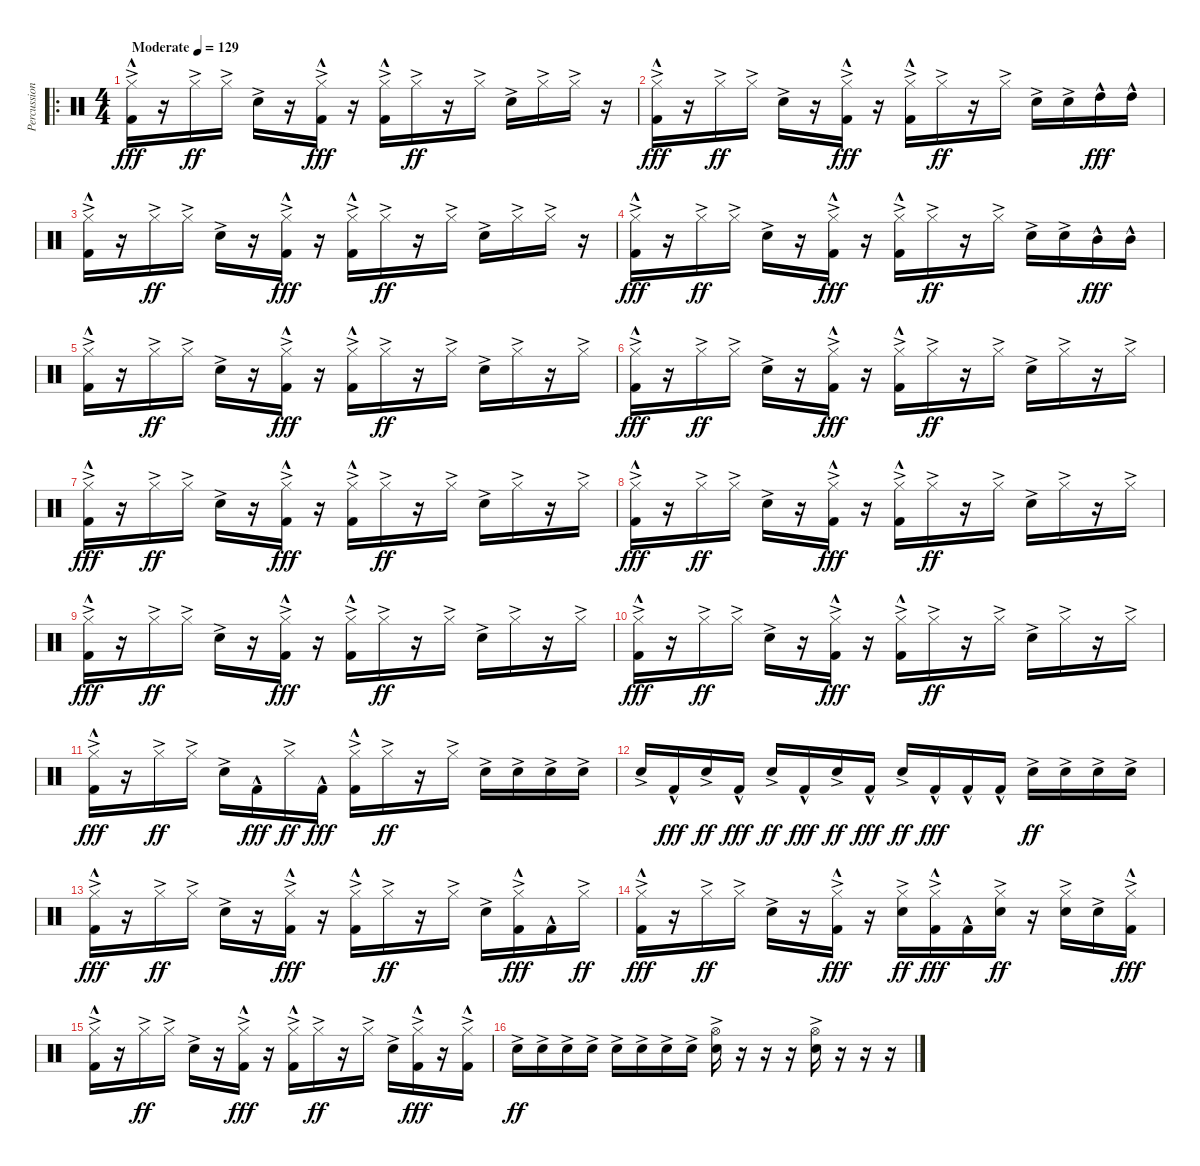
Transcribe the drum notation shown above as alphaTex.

\track ("Percussion" "Percussion") {instrument percussion}
\staff {score}
\articulation defaults
\ro
\ts (4 4)
\tempo (129 "Moderate")
\clef neutral
\ks c
("Hi-Hat (closed)"{ac} "Kick (hit) 2"{hac}).16{dy fff} r.16 "Hi-Hat (closed)"{ac}.16{dy ff} "Hi-Hat (closed)"{ac}.16 "Snare (hit) 2"{ac}.16 r.16 ("Hi-Hat (closed)"{ac} "Kick (hit) 2"{hac}).16{dy fff} r.16 ("Hi-Hat (closed)"{ac} "Kick (hit) 2"{hac}).16 "Hi-Hat (closed)"{ac}.16{dy ff} r.16 "Hi-Hat (closed)"{ac}.16 "Snare (hit) 2"{ac}.16 "Hi-Hat (closed)"{ac}.16 "Hi-Hat (closed)"{ac}.16 r.16 |
("Hi-Hat (closed)"{ac} "Kick (hit) 2"{hac}).16{dy fff} r.16 "Hi-Hat (closed)"{ac}.16{dy ff} "Hi-Hat (closed)"{ac}.16 "Snare (hit) 2"{ac}.16 r.16 ("Hi-Hat (closed)"{ac} "Kick (hit) 2"{hac}).16{dy fff} r.16 ("Hi-Hat (closed)"{ac} "Kick (hit) 2"{hac}).16 "Hi-Hat (closed)"{ac}.16{dy ff} r.16 "Hi-Hat (closed)"{ac}.16 "Snare (hit) 2"{ac}.16 "Snare (hit) 2"{ac}.16 "High Tom (hit)"{hac}.16{dy fff} "High Tom (hit)"{hac}.16 |
("Hi-Hat (closed)"{ac} "Kick (hit) 2"{hac}).16 r.16 "Hi-Hat (closed)"{ac}.16{dy ff} "Hi-Hat (closed)"{ac}.16 "Snare (hit) 2"{ac}.16 r.16 ("Hi-Hat (closed)"{ac} "Kick (hit) 2"{hac}).16{dy fff} r.16 ("Hi-Hat (closed)"{ac} "Kick (hit) 2"{hac}).16 "Hi-Hat (closed)"{ac}.16{dy ff} r.16 "Hi-Hat (closed)"{ac}.16 "Snare (hit) 2"{ac}.16 "Hi-Hat (closed)"{ac}.16 "Hi-Hat (closed)"{ac}.16 r.16 |
("Hi-Hat (closed)"{ac} "Kick (hit) 2"{hac}).16{dy fff} r.16 "Hi-Hat (closed)"{ac}.16{dy ff} "Hi-Hat (closed)"{ac}.16 "Snare (hit) 2"{ac}.16 r.16 ("Hi-Hat (closed)"{ac} "Kick (hit) 2"{hac}).16{dy fff} r.16 ("Hi-Hat (closed)"{ac} "Kick (hit) 2"{hac}).16 "Hi-Hat (closed)"{ac}.16{dy ff} r.16 "Hi-Hat (closed)"{ac}.16 "Snare (hit) 2"{ac}.16 "Snare (hit) 2"{ac}.16 "Mid Tom (hit)"{hac}.16{dy fff} "Mid Tom (hit)"{hac}.16 |
("Hi-Hat (closed)"{ac} "Kick (hit) 2"{hac}).16 r.16 "Hi-Hat (closed)"{ac}.16{dy ff} "Hi-Hat (closed)"{ac}.16 "Snare (hit) 2"{ac}.16 r.16 ("Hi-Hat (closed)"{ac} "Kick (hit) 2"{hac}).16{dy fff} r.16 ("Hi-Hat (closed)"{ac} "Kick (hit) 2"{hac}).16 "Hi-Hat (closed)"{ac}.16{dy ff} r.16 "Hi-Hat (closed)"{ac}.16 "Snare (hit) 2"{ac}.16 "Hi-Hat (closed)"{ac}.16 r.16 "Hi-Hat (closed)"{ac}.16 |
("Hi-Hat (closed)"{ac} "Kick (hit) 2"{hac}).16{dy fff} r.16 "Hi-Hat (closed)"{ac}.16{dy ff} "Hi-Hat (closed)"{ac}.16 "Snare (hit) 2"{ac}.16 r.16 ("Hi-Hat (closed)"{ac} "Kick (hit) 2"{hac}).16{dy fff} r.16 ("Hi-Hat (closed)"{ac} "Kick (hit) 2"{hac}).16 "Hi-Hat (closed)"{ac}.16{dy ff} r.16 "Hi-Hat (closed)"{ac}.16 "Snare (hit) 2"{ac}.16 "Hi-Hat (closed)"{ac}.16 r.16 "Hi-Hat (closed)"{ac}.16 |
("Hi-Hat (closed)"{ac} "Kick (hit) 2"{hac}).16{dy fff} r.16 "Hi-Hat (closed)"{ac}.16{dy ff} "Hi-Hat (closed)"{ac}.16 "Snare (hit) 2"{ac}.16 r.16 ("Hi-Hat (closed)"{ac} "Kick (hit) 2"{hac}).16{dy fff} r.16 ("Hi-Hat (closed)"{ac} "Kick (hit) 2"{hac}).16 "Hi-Hat (closed)"{ac}.16{dy ff} r.16 "Hi-Hat (closed)"{ac}.16 "Snare (hit) 2"{ac}.16 "Hi-Hat (closed)"{ac}.16 r.16 "Hi-Hat (closed)"{ac}.16 |
("Hi-Hat (closed)"{ac} "Kick (hit) 2"{hac}).16{dy fff} r.16 "Hi-Hat (closed)"{ac}.16{dy ff} "Hi-Hat (closed)"{ac}.16 "Snare (hit) 2"{ac}.16 r.16 ("Hi-Hat (closed)"{ac} "Kick (hit) 2"{hac}).16{dy fff} r.16 ("Hi-Hat (closed)"{ac} "Kick (hit) 2"{hac}).16 "Hi-Hat (closed)"{ac}.16{dy ff} r.16 "Hi-Hat (closed)"{ac}.16 "Snare (hit) 2"{ac}.16 "Hi-Hat (closed)"{ac}.16 r.16 "Hi-Hat (closed)"{ac}.16 |
("Hi-Hat (closed)"{ac} "Kick (hit) 2"{hac}).16{dy fff} r.16 "Hi-Hat (closed)"{ac}.16{dy ff} "Hi-Hat (closed)"{ac}.16 "Snare (hit) 2"{ac}.16 r.16 ("Hi-Hat (closed)"{ac} "Kick (hit) 2"{hac}).16{dy fff} r.16 ("Hi-Hat (closed)"{ac} "Kick (hit) 2"{hac}).16 "Hi-Hat (closed)"{ac}.16{dy ff} r.16 "Hi-Hat (closed)"{ac}.16 "Snare (hit) 2"{ac}.16 "Hi-Hat (closed)"{ac}.16 r.16 "Hi-Hat (closed)"{ac}.16 |
("Hi-Hat (closed)"{ac} "Kick (hit) 2"{hac}).16{dy fff} r.16 "Hi-Hat (closed)"{ac}.16{dy ff} "Hi-Hat (closed)"{ac}.16 "Snare (hit) 2"{ac}.16 r.16 ("Hi-Hat (closed)"{ac} "Kick (hit) 2"{hac}).16{dy fff} r.16 ("Hi-Hat (closed)"{ac} "Kick (hit) 2"{hac}).16 "Hi-Hat (closed)"{ac}.16{dy ff} r.16 "Hi-Hat (closed)"{ac}.16 "Snare (hit) 2"{ac}.16 "Hi-Hat (closed)"{ac}.16 r.16 "Hi-Hat (closed)"{ac}.16 |
("Hi-Hat (closed)"{ac} "Kick (hit) 2"{hac}).16{dy fff} r.16 "Hi-Hat (closed)"{ac}.16{dy ff} "Hi-Hat (closed)"{ac}.16 "Snare (hit) 2"{ac}.16 "Kick (hit) 2"{hac}.16{dy fff} "Hi-Hat (closed)"{ac}.16{dy ff} "Kick (hit) 2"{hac}.16{dy fff} ("Hi-Hat (closed)"{ac} "Kick (hit) 2"{hac}).16 "Hi-Hat (closed)"{ac}.16{dy ff} r.16 "Hi-Hat (closed)"{ac}.16 "Snare (hit) 2"{ac}.16 "Snare (hit) 2"{ac}.16 "Snare (hit) 2"{ac}.16 "Snare (hit) 2"{ac}.16 |
"Snare (hit) 2"{ac}.16 "Kick (hit) 2"{hac}.16{dy fff} "Snare (hit) 2"{ac}.16{dy ff} "Kick (hit) 2"{hac}.16{dy fff} "Snare (hit) 2"{ac}.16{dy ff} "Kick (hit) 2"{hac}.16{dy fff} "Snare (hit) 2"{ac}.16{dy ff} "Kick (hit) 2"{hac}.16{dy fff} "Snare (hit) 2"{ac}.16{dy ff} "Kick (hit) 2"{hac}.16{dy fff} "Kick (hit) 2"{hac}.16 "Kick (hit) 2"{hac}.16 "Snare (hit) 2"{ac}.16{dy ff} "Snare (hit) 2"{ac}.16 "Snare (hit) 2"{ac}.16 "Snare (hit) 2"{ac}.16 |
("Hi-Hat (closed)"{ac} "Kick (hit) 2"{hac}).16{dy fff} r.16 "Hi-Hat (closed)"{ac}.16{dy ff} "Hi-Hat (closed)"{ac}.16 "Snare (hit) 2"{ac}.16 r.16 ("Hi-Hat (closed)"{ac} "Kick (hit) 2"{hac}).16{dy fff} r.16 ("Hi-Hat (closed)"{ac} "Kick (hit) 2"{hac}).16 "Hi-Hat (closed)"{ac}.16{dy ff} r.16 "Hi-Hat (closed)"{ac}.16 "Snare (hit) 2"{ac}.16 ("Hi-Hat (closed)"{ac} "Kick (hit) 2"{hac}).16{dy fff} "Kick (hit) 2"{hac}.16 "Hi-Hat (closed)"{ac}.16{dy ff} |
("Hi-Hat (closed)"{ac} "Kick (hit) 2"{hac}).16{dy fff} r.16 "Hi-Hat (closed)"{ac}.16{dy ff} "Hi-Hat (closed)"{ac}.16 "Snare (hit) 2"{ac}.16 r.16 ("Hi-Hat (closed)"{ac} "Kick (hit) 2"{hac}).16{dy fff} r.16 ("Hi-Hat (closed)"{ac} "Snare (hit) 2"{ac}).16{dy ff} ("Hi-Hat (closed)"{ac} "Kick (hit) 2"{hac}).16{dy fff} "Kick (hit) 2"{hac}.16 ("Hi-Hat (closed)"{ac} "Snare (hit) 2"{ac}).16{dy ff} r.16 ("Hi-Hat (closed)"{ac} "Snare (hit) 2"{ac}).16 "Snare (hit) 2"{ac}.16 ("Hi-Hat (closed)"{ac} "Kick (hit) 2"{hac}).16{dy fff} |
("Hi-Hat (closed)"{ac} "Kick (hit) 2"{hac}).16 r.16 "Hi-Hat (closed)"{ac}.16{dy ff} "Hi-Hat (closed)"{ac}.16 "Snare (hit) 2"{ac}.16 r.16 ("Hi-Hat (closed)"{ac} "Kick (hit) 2"{hac}).16{dy fff} r.16 ("Hi-Hat (closed)"{ac} "Kick (hit) 2"{hac}).16 "Hi-Hat (closed)"{ac}.16{dy ff} r.16 "Hi-Hat (closed)"{ac}.16 "Snare (hit) 2"{ac}.16 ("Hi-Hat (closed)"{ac} "Kick (hit) 2"{hac}).16{dy fff} r.16 ("Hi-Hat (closed)"{ac} "Kick (hit) 2"{hac}).16 |
"Snare (hit) 2"{ac}.16{dy ff} "Snare (hit) 2"{ac}.16 "Snare (hit) 2"{ac}.16 "Snare (hit) 2"{ac}.16 "Snare (hit) 2"{ac}.16 "Snare (hit) 2"{ac}.16 "Snare (hit) 2"{ac}.16 "Snare (hit) 2"{ac}.16 ("Hi-Hat (open)"{ac} "Snare (hit) 2"{ac}).16 r.16 r.16 r.16 ("Hi-Hat (open)"{ac} "Snare (hit) 2"{ac}).16 r.16 r.16 r.16
